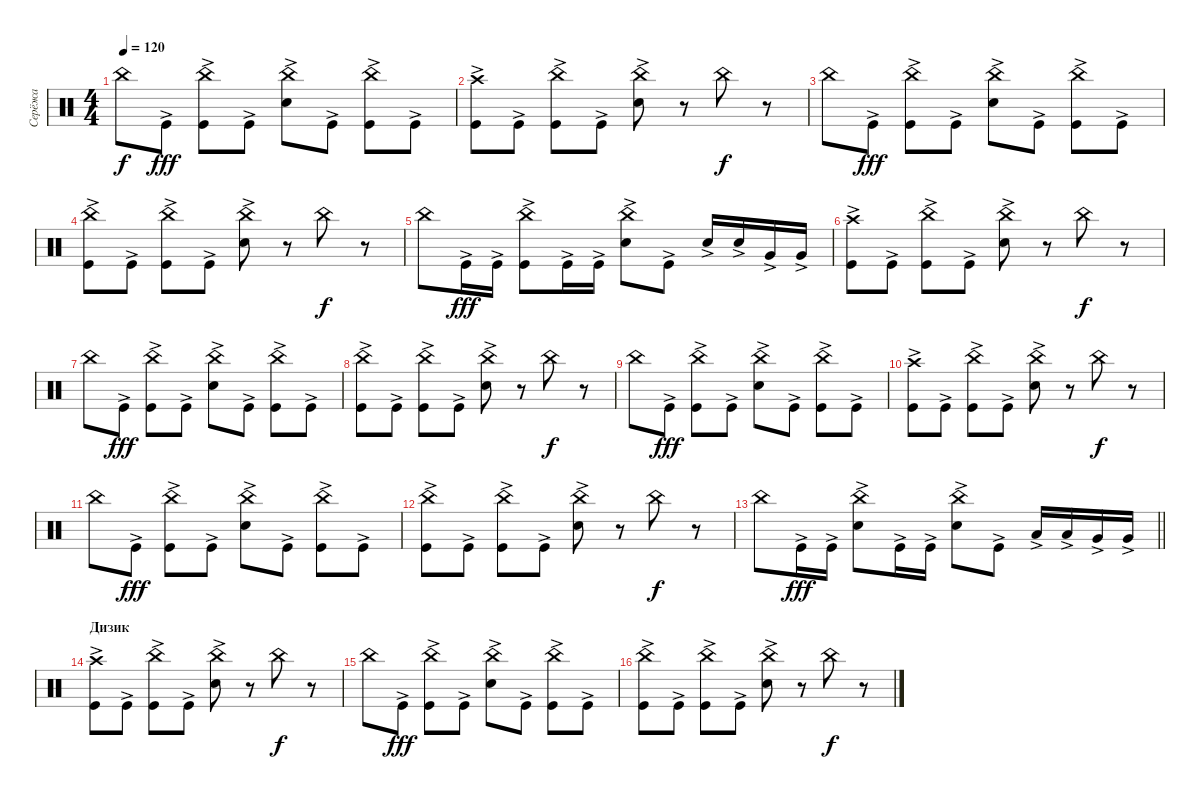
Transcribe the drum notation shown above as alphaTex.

\track ("Серёжа" "Серёжа") {instrument percussion}
\staff {score}
\articulation defaults
\ts (4 4)
\tempo 120
\clef neutral
\ks c "China (hit)".8{dy f} "Kick (hit)"{ac}.8{dy fff}
("China (hit)" "Kick (hit)"{ac}).8 "Kick (hit)"{ac}.8 ("China (hit)" "Snare (hit) 2"{ac}).8 "Kick (hit)"{ac}.8 ("China (hit)" "Kick (hit)"{ac}).8 "Kick (hit)"{ac}.8 |
("Crash high (hit)"{ac} "Kick (hit)"{ac}).8 "Kick (hit)"{ac}.8 ("China (hit)" "Kick (hit)"{ac}).8 "Kick (hit)"{ac}.8 ("China (hit)" "Snare (hit) 2"{ac}).8 r.8 "China (hit)".8{dy f} r.8 |
"China (hit)".8 "Kick (hit)"{ac}.8{dy fff} ("China (hit)" "Kick (hit)"{ac}).8 "Kick (hit)"{ac}.8 ("China (hit)" "Snare (hit) 2"{ac}).8 "Kick (hit)"{ac}.8 ("China (hit)" "Kick (hit)"{ac}).8 "Kick (hit)"{ac}.8 |
("China (hit)" "Kick (hit)"{ac}).8 "Kick (hit)"{ac}.8 ("China (hit)" "Kick (hit)"{ac}).8 "Kick (hit)"{ac}.8 ("China (hit)" "Snare (hit) 2"{ac}).8 r.8 "China (hit)".8{dy f} r.8 |
"China (hit)".8 "Kick (hit)"{ac}.16{dy fff} "Kick (hit)"{ac}.16 ("China (hit)" "Kick (hit)"{ac}).8 "Kick (hit)"{ac}.16 "Kick (hit)"{ac}.16 ("China (hit)" "Snare (hit) 2"{ac}).8 "Kick (hit)"{ac}.8 "Snare (hit) 2"{ac}.16 "Snare (hit) 2"{ac}.16 "Very Low Tom (hit)"{ac}.16 "Very Low Tom (hit)"{ac}.16 |
("Crash high (hit)"{ac} "Kick (hit)"{ac}).8 "Kick (hit)"{ac}.8 ("China (hit)" "Kick (hit)"{ac}).8 "Kick (hit)"{ac}.8 ("China (hit)" "Snare (hit) 2"{ac}).8 r.8 "China (hit)".8{dy f} r.8 |
"China (hit)".8 "Kick (hit)"{ac}.8{dy fff} ("China (hit)" "Kick (hit)"{ac}).8 "Kick (hit)"{ac}.8 ("China (hit)" "Snare (hit) 2"{ac}).8 "Kick (hit)"{ac}.8 ("China (hit)" "Kick (hit)"{ac}).8 "Kick (hit)"{ac}.8 |
("China (hit)" "Kick (hit)"{ac}).8 "Kick (hit)"{ac}.8 ("China (hit)" "Kick (hit)"{ac}).8 "Kick (hit)"{ac}.8 ("China (hit)" "Snare (hit) 2"{ac}).8 r.8 "China (hit)".8{dy f} r.8 |
"China (hit)".8 "Kick (hit)"{ac}.8{dy fff} ("China (hit)" "Kick (hit)"{ac}).8 "Kick (hit)"{ac}.8 ("China (hit)" "Snare (hit) 2"{ac}).8 "Kick (hit)"{ac}.8 ("China (hit)" "Kick (hit)"{ac}).8 "Kick (hit)"{ac}.8 |
("Crash high (hit)"{ac} "Kick (hit)"{ac}).8 "Kick (hit)"{ac}.8 ("China (hit)" "Kick (hit)"{ac}).8 "Kick (hit)"{ac}.8 ("China (hit)" "Snare (hit) 2"{ac}).8 r.8 "China (hit)".8{dy f} r.8 |
"China (hit)".8 "Kick (hit)"{ac}.8{dy fff} ("China (hit)" "Kick (hit)"{ac}).8 "Kick (hit)"{ac}.8 ("China (hit)" "Snare (hit) 2"{ac}).8 "Kick (hit)"{ac}.8 ("China (hit)" "Kick (hit)"{ac}).8 "Kick (hit)"{ac}.8 |
("China (hit)" "Kick (hit)"{ac}).8 "Kick (hit)"{ac}.8 ("China (hit)" "Kick (hit)"{ac}).8 "Kick (hit)"{ac}.8 ("China (hit)" "Snare (hit) 2"{ac}).8 r.8 "China (hit)".8{dy f} r.8 |
\barLineRight lightlight "China (hit)".8 "Kick (hit)"{ac}.16{dy fff} "Kick (hit)"{ac}.16
("China (hit)" "Snare (hit) 2"{ac}).8 "Kick (hit)"{ac}.16 "Kick (hit)"{ac}.16 ("China (hit)" "Snare (hit) 2"{ac}).8 "Kick (hit)"{ac}.8 "Low Tom (hit)"{ac}.16 "Low Tom (hit)"{ac}.16 "Very Low Tom (hit)"{ac}.16 "Very Low Tom (hit)"{ac}.16 |
\section ("" "Дизик")
("Crash high (hit)"{ac} "Kick (hit)"{ac}).8 "Kick (hit)"{ac}.8 ("China (hit)" "Kick (hit)"{ac}).8 "Kick (hit)"{ac}.8 ("China (hit)" "Snare (hit) 2"{ac}).8 r.8 "China (hit)".8{dy f} r.8 |
"China (hit)".8 "Kick (hit)"{ac}.8{dy fff} ("China (hit)" "Kick (hit)"{ac}).8 "Kick (hit)"{ac}.8 ("China (hit)" "Snare (hit) 2"{ac}).8 "Kick (hit)"{ac}.8 ("China (hit)" "Kick (hit)"{ac}).8 "Kick (hit)"{ac}.8 |
("China (hit)" "Kick (hit)"{ac}).8 "Kick (hit)"{ac}.8 ("China (hit)" "Kick (hit)"{ac}).8 "Kick (hit)"{ac}.8 ("China (hit)" "Snare (hit) 2"{ac}).8 r.8 "China (hit)".8{dy f} r.8
